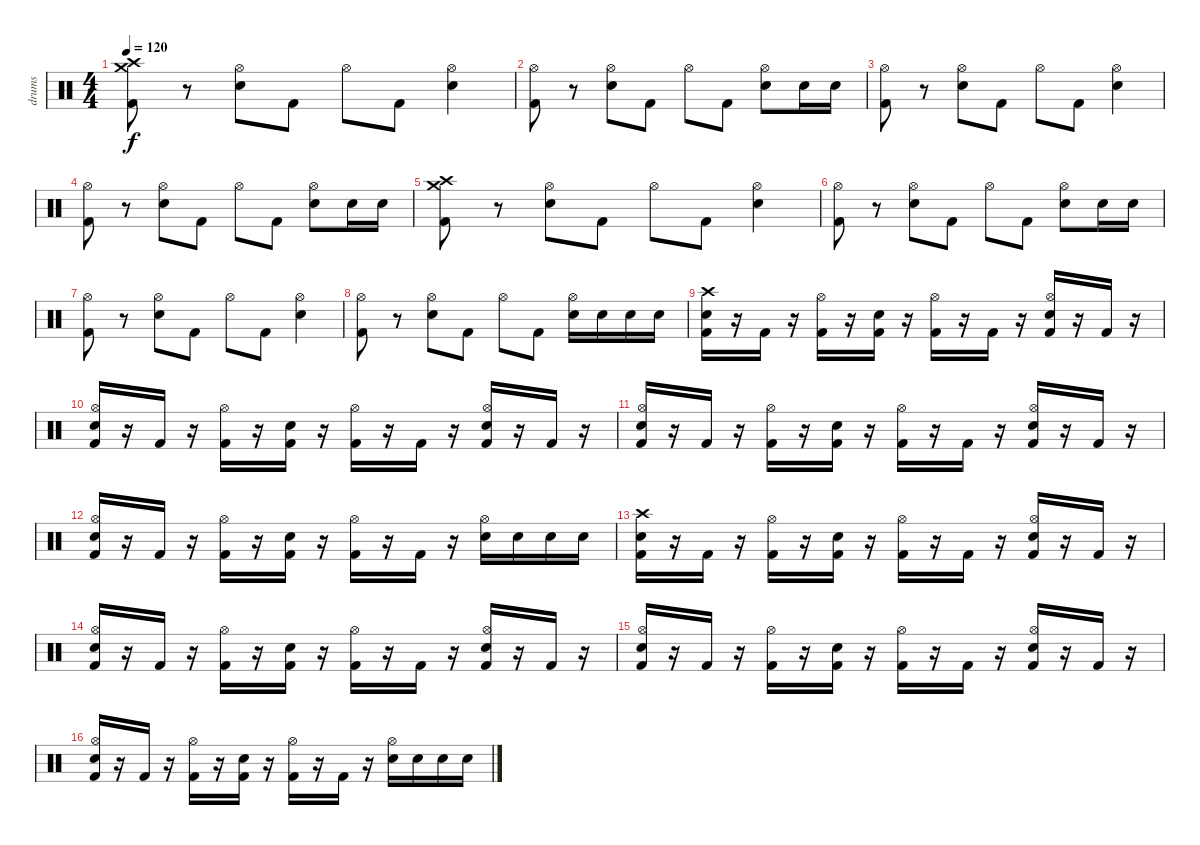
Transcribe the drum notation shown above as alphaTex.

\track ("drums" "drums") {instrument percussion}
\staff {score}
\articulation defaults
\ts (4 4)
\tempo 120
\clef neutral
\ks c
("Crash medium (hit)" "Crash high (hit)" "Kick (hit) 2").8{dy f} r.8 ("Hi-Hat (open)" "Electric Snare (hit)").8 "Kick (hit) 2".8 "Hi-Hat (open)".8 "Kick (hit) 2".8 ("Hi-Hat (open)" "Electric Snare (hit)").4 |
("Hi-Hat (open)" "Kick (hit) 2").8 r.8 ("Hi-Hat (open)" "Electric Snare (hit)").8 "Kick (hit) 2".8 "Hi-Hat (open)".8 "Kick (hit) 2".8 ("Hi-Hat (open)" "Electric Snare (hit)").8 "Electric Snare (hit)".16 "Electric Snare (hit)".16 |
("Hi-Hat (open)" "Kick (hit) 2").8 r.8 ("Hi-Hat (open)" "Electric Snare (hit)").8 "Kick (hit) 2".8 "Hi-Hat (open)".8 "Kick (hit) 2".8 ("Hi-Hat (open)" "Electric Snare (hit)").4 |
("Hi-Hat (open)" "Kick (hit) 2").8 r.8 ("Hi-Hat (open)" "Electric Snare (hit)").8 "Kick (hit) 2".8 "Hi-Hat (open)".8 "Kick (hit) 2".8 ("Hi-Hat (open)" "Electric Snare (hit)").8 "Electric Snare (hit)".16 "Electric Snare (hit)".16 |
("Crash medium (hit)" "Crash high (hit)" "Kick (hit) 2").8 r.8 ("Hi-Hat (open)" "Electric Snare (hit)").8 "Kick (hit) 2".8 "Hi-Hat (open)".8 "Kick (hit) 2".8 ("Hi-Hat (open)" "Electric Snare (hit)").4 |
("Hi-Hat (open)" "Kick (hit) 2").8 r.8 ("Hi-Hat (open)" "Electric Snare (hit)").8 "Kick (hit) 2".8 "Hi-Hat (open)".8 "Kick (hit) 2".8 ("Hi-Hat (open)" "Electric Snare (hit)").8 "Electric Snare (hit)".16 "Electric Snare (hit)".16 |
("Hi-Hat (open)" "Kick (hit) 2").8 r.8 ("Hi-Hat (open)" "Electric Snare (hit)").8 "Kick (hit) 2".8 "Hi-Hat (open)".8 "Kick (hit) 2".8 ("Hi-Hat (open)" "Electric Snare (hit)").4 |
("Hi-Hat (open)" "Kick (hit) 2").8 r.8 ("Hi-Hat (open)" "Electric Snare (hit)").8 "Kick (hit) 2".8 "Hi-Hat (open)".8 "Kick (hit) 2".8 ("Hi-Hat (open)" "Electric Snare (hit)").16 "Electric Snare (hit)".16 "Electric Snare (hit)".16 "Electric Snare (hit)".16 |
("Kick (hit) 2" "Electric Snare (hit)" "Crash high (hit)").16 r.16 "Kick (hit) 2".16 r.16 ("Kick (hit) 2" "Hi-Hat (open)").16 r.16 ("Kick (hit) 2" "Electric Snare (hit)").16 r.16 ("Kick (hit) 2" "Hi-Hat (open)").16 r.16 "Kick (hit) 2".16 r.16 ("Kick (hit) 2" "Electric Snare (hit)" "Hi-Hat (open)").16 r.16 "Kick (hit) 2".16 r.16 |
("Kick (hit) 2" "Electric Snare (hit)" "Hi-Hat (open)").16 r.16 "Kick (hit) 2".16 r.16 ("Kick (hit) 2" "Hi-Hat (open)").16 r.16 ("Kick (hit) 2" "Electric Snare (hit)").16 r.16 ("Kick (hit) 2" "Hi-Hat (open)").16 r.16 "Kick (hit) 2".16 r.16 ("Kick (hit) 2" "Electric Snare (hit)" "Hi-Hat (open)").16 r.16 "Kick (hit) 2".16 r.16 |
("Kick (hit) 2" "Electric Snare (hit)" "Hi-Hat (open)").16 r.16 "Kick (hit) 2".16 r.16 ("Kick (hit) 2" "Hi-Hat (open)").16 r.16 ("Kick (hit) 2" "Electric Snare (hit)").16 r.16 ("Kick (hit) 2" "Hi-Hat (open)").16 r.16 "Kick (hit) 2".16 r.16 ("Kick (hit) 2" "Electric Snare (hit)" "Hi-Hat (open)").16 r.16 "Kick (hit) 2".16 r.16 |
("Kick (hit) 2" "Electric Snare (hit)" "Hi-Hat (open)").16 r.16 "Kick (hit) 2".16 r.16 ("Kick (hit) 2" "Hi-Hat (open)").16 r.16 ("Kick (hit) 2" "Electric Snare (hit)").16 r.16 ("Kick (hit) 2" "Hi-Hat (open)").16 r.16 "Kick (hit) 2".16 r.16 ("Electric Snare (hit)" "Hi-Hat (open)").16 "Electric Snare (hit)".16 "Electric Snare (hit)".16 "Electric Snare (hit)".16 |
("Kick (hit) 2" "Electric Snare (hit)" "Crash high (hit)").16 r.16 "Kick (hit) 2".16 r.16 ("Kick (hit) 2" "Hi-Hat (open)").16 r.16 ("Kick (hit) 2" "Electric Snare (hit)").16 r.16 ("Kick (hit) 2" "Hi-Hat (open)").16 r.16 "Kick (hit) 2".16 r.16 ("Kick (hit) 2" "Electric Snare (hit)" "Hi-Hat (open)").16 r.16 "Kick (hit) 2".16 r.16 |
("Kick (hit) 2" "Electric Snare (hit)" "Hi-Hat (open)").16 r.16 "Kick (hit) 2".16 r.16 ("Kick (hit) 2" "Hi-Hat (open)").16 r.16 ("Kick (hit) 2" "Electric Snare (hit)").16 r.16 ("Kick (hit) 2" "Hi-Hat (open)").16 r.16 "Kick (hit) 2".16 r.16 ("Kick (hit) 2" "Electric Snare (hit)" "Hi-Hat (open)").16 r.16 "Kick (hit) 2".16 r.16 |
("Kick (hit) 2" "Electric Snare (hit)" "Hi-Hat (open)").16 r.16 "Kick (hit) 2".16 r.16 ("Kick (hit) 2" "Hi-Hat (open)").16 r.16 ("Kick (hit) 2" "Electric Snare (hit)").16 r.16 ("Kick (hit) 2" "Hi-Hat (open)").16 r.16 "Kick (hit) 2".16 r.16 ("Kick (hit) 2" "Electric Snare (hit)" "Hi-Hat (open)").16 r.16 "Kick (hit) 2".16 r.16 |
("Kick (hit) 2" "Electric Snare (hit)" "Hi-Hat (open)").16 r.16 "Kick (hit) 2".16 r.16 ("Kick (hit) 2" "Hi-Hat (open)").16 r.16 ("Kick (hit) 2" "Electric Snare (hit)").16 r.16 ("Kick (hit) 2" "Hi-Hat (open)").16 r.16 "Kick (hit) 2".16 r.16 ("Electric Snare (hit)" "Hi-Hat (open)").16 "Electric Snare (hit)".16 "Electric Snare (hit)".16 "Electric Snare (hit)".16
